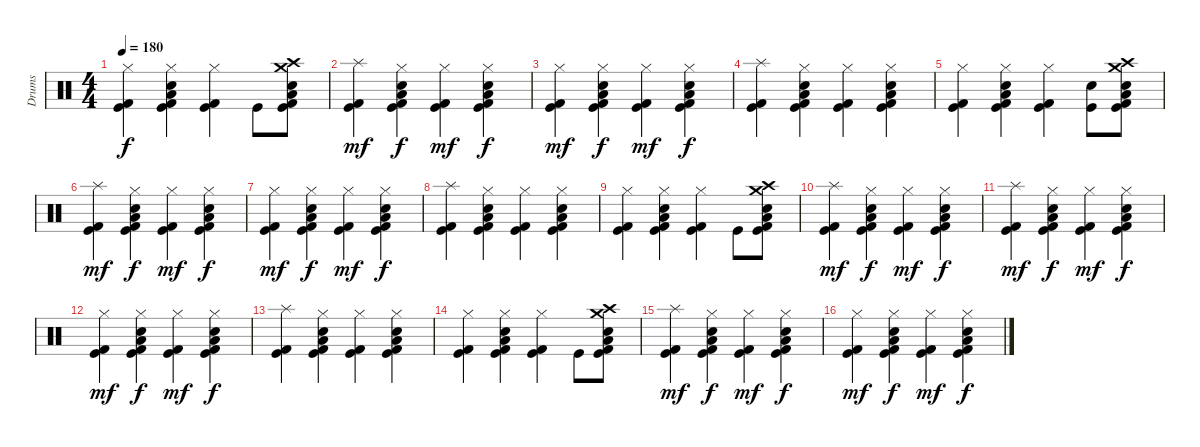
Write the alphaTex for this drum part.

\track ("Drums" "Drums") {instrument percussion}
\staff {score}
\articulation defaults
\ts (4 4)
\tempo 180
\clef neutral
\ks c
("Hi-Hat (closed)" "Kick (hit) 2" "Kick (hit)").4{dy f} ("Hi-Hat (closed)" "Electric Snare (hit)" "Low Tom (hit)" "Kick (hit) 2" "Kick (hit)").4 ("Hi-Hat (closed)" "Kick (hit) 2" "Kick (hit)").4 "Kick (hit)".8 ("Crash high (hit)" "Electric Snare (hit)" "Low Tom (hit)" "Crash medium (hit)" "Kick (hit) 2" "Kick (hit)").8 |
("Splash (hit)" "Kick (hit) 2" "Kick (hit)").4{dy mf} ("Hi-Hat (closed)" "Electric Snare (hit)" "Low Tom (hit)" "Kick (hit) 2" "Kick (hit)").4{dy f} ("Hi-Hat (closed)" "Kick (hit) 2" "Kick (hit)").4{dy mf} ("Hi-Hat (closed)" "Electric Snare (hit)" "Low Tom (hit)" "Kick (hit) 2" "Kick (hit)").4{dy f} |
("Hi-Hat (closed)" "Kick (hit) 2" "Kick (hit)").4{dy mf} ("Hi-Hat (closed)" "Electric Snare (hit)" "Low Tom (hit)" "Kick (hit) 2" "Kick (hit)").4{dy f} ("Hi-Hat (closed)" "Kick (hit) 2" "Kick (hit)").4{dy mf} ("Hi-Hat (closed)" "Electric Snare (hit)" "Low Tom (hit)" "Kick (hit) 2" "Kick (hit)").4{dy f} |
("Splash (hit)" "Kick (hit) 2" "Kick (hit)").4 ("Hi-Hat (closed)" "Electric Snare (hit)" "Low Tom (hit)" "Kick (hit) 2" "Kick (hit)").4 ("Hi-Hat (closed)" "Kick (hit) 2" "Kick (hit)").4 ("Hi-Hat (closed)" "Electric Snare (hit)" "Low Tom (hit)" "Kick (hit) 2" "Kick (hit)").4 |
("Hi-Hat (closed)" "Kick (hit) 2" "Kick (hit)").4 ("Hi-Hat (closed)" "Electric Snare (hit)" "Low Tom (hit)" "Kick (hit) 2" "Kick (hit)").4 ("Hi-Hat (closed)" "Kick (hit) 2" "Kick (hit)").4 ("Electric Snare (hit)" "Kick (hit)").8 ("Crash high (hit)" "Electric Snare (hit)" "Low Tom (hit)" "Crash medium (hit)" "Kick (hit) 2" "Kick (hit)").8 |
("Splash (hit)" "Kick (hit) 2" "Kick (hit)").4{dy mf} ("Hi-Hat (closed)" "Electric Snare (hit)" "Low Tom (hit)" "Kick (hit) 2" "Kick (hit)").4{dy f} ("Hi-Hat (closed)" "Kick (hit) 2" "Kick (hit)").4{dy mf} ("Hi-Hat (closed)" "Electric Snare (hit)" "Low Tom (hit)" "Kick (hit) 2" "Kick (hit)").4{dy f} |
("Hi-Hat (closed)" "Kick (hit) 2" "Kick (hit)").4{dy mf} ("Hi-Hat (closed)" "Electric Snare (hit)" "Low Tom (hit)" "Kick (hit) 2" "Kick (hit)").4{dy f} ("Hi-Hat (closed)" "Kick (hit) 2" "Kick (hit)").4{dy mf} ("Hi-Hat (closed)" "Electric Snare (hit)" "Low Tom (hit)" "Kick (hit) 2" "Kick (hit)").4{dy f} |
("Splash (hit)" "Kick (hit) 2" "Kick (hit)").4 ("Hi-Hat (closed)" "Electric Snare (hit)" "Low Tom (hit)" "Kick (hit) 2" "Kick (hit)").4 ("Hi-Hat (closed)" "Kick (hit) 2" "Kick (hit)").4 ("Hi-Hat (closed)" "Electric Snare (hit)" "Low Tom (hit)" "Kick (hit) 2" "Kick (hit)").4 |
("Hi-Hat (closed)" "Kick (hit) 2" "Kick (hit)").4 ("Hi-Hat (closed)" "Electric Snare (hit)" "Low Tom (hit)" "Kick (hit) 2" "Kick (hit)").4 ("Hi-Hat (closed)" "Kick (hit) 2" "Kick (hit)").4 "Kick (hit)".8 ("Crash high (hit)" "Electric Snare (hit)" "Low Tom (hit)" "Crash medium (hit)" "Kick (hit) 2" "Kick (hit)").8 |
("Splash (hit)" "Kick (hit) 2" "Kick (hit)").4{dy mf} ("Hi-Hat (closed)" "Electric Snare (hit)" "Low Tom (hit)" "Kick (hit) 2" "Kick (hit)").4{dy f} ("Hi-Hat (closed)" "Kick (hit) 2" "Kick (hit)").4{dy mf} ("Hi-Hat (closed)" "Electric Snare (hit)" "Low Tom (hit)" "Kick (hit) 2" "Kick (hit)").4{dy f} |
("Splash (hit)" "Kick (hit) 2" "Kick (hit)").4{dy mf} ("Hi-Hat (closed)" "Electric Snare (hit)" "Low Tom (hit)" "Kick (hit) 2" "Kick (hit)").4{dy f} ("Hi-Hat (closed)" "Kick (hit) 2" "Kick (hit)").4{dy mf} ("Hi-Hat (closed)" "Electric Snare (hit)" "Low Tom (hit)" "Kick (hit) 2" "Kick (hit)").4{dy f} |
("Hi-Hat (closed)" "Kick (hit) 2" "Kick (hit)").4{dy mf} ("Hi-Hat (closed)" "Electric Snare (hit)" "Low Tom (hit)" "Kick (hit) 2" "Kick (hit)").4{dy f} ("Hi-Hat (closed)" "Kick (hit) 2" "Kick (hit)").4{dy mf} ("Hi-Hat (closed)" "Electric Snare (hit)" "Low Tom (hit)" "Kick (hit) 2" "Kick (hit)").4{dy f} |
("Splash (hit)" "Kick (hit) 2" "Kick (hit)").4 ("Hi-Hat (closed)" "Electric Snare (hit)" "Low Tom (hit)" "Kick (hit) 2" "Kick (hit)").4 ("Hi-Hat (closed)" "Kick (hit) 2" "Kick (hit)").4 ("Hi-Hat (closed)" "Electric Snare (hit)" "Low Tom (hit)" "Kick (hit) 2" "Kick (hit)").4 |
("Hi-Hat (closed)" "Kick (hit) 2" "Kick (hit)").4 ("Hi-Hat (closed)" "Electric Snare (hit)" "Low Tom (hit)" "Kick (hit) 2" "Kick (hit)").4 ("Hi-Hat (closed)" "Kick (hit) 2" "Kick (hit)").4 "Kick (hit)".8 ("Crash high (hit)" "Electric Snare (hit)" "Low Tom (hit)" "Crash medium (hit)" "Kick (hit) 2" "Kick (hit)").8 |
("Splash (hit)" "Kick (hit) 2" "Kick (hit)").4{dy mf} ("Hi-Hat (closed)" "Electric Snare (hit)" "Low Tom (hit)" "Kick (hit) 2" "Kick (hit)").4{dy f} ("Hi-Hat (closed)" "Kick (hit) 2" "Kick (hit)").4{dy mf} ("Hi-Hat (closed)" "Electric Snare (hit)" "Low Tom (hit)" "Kick (hit) 2" "Kick (hit)").4{dy f} |
("Hi-Hat (closed)" "Kick (hit) 2" "Kick (hit)").4{dy mf} ("Hi-Hat (closed)" "Electric Snare (hit)" "Low Tom (hit)" "Kick (hit) 2" "Kick (hit)").4{dy f} ("Hi-Hat (closed)" "Kick (hit) 2" "Kick (hit)").4{dy mf} ("Hi-Hat (closed)" "Electric Snare (hit)" "Low Tom (hit)" "Kick (hit) 2" "Kick (hit)").4{dy f}
